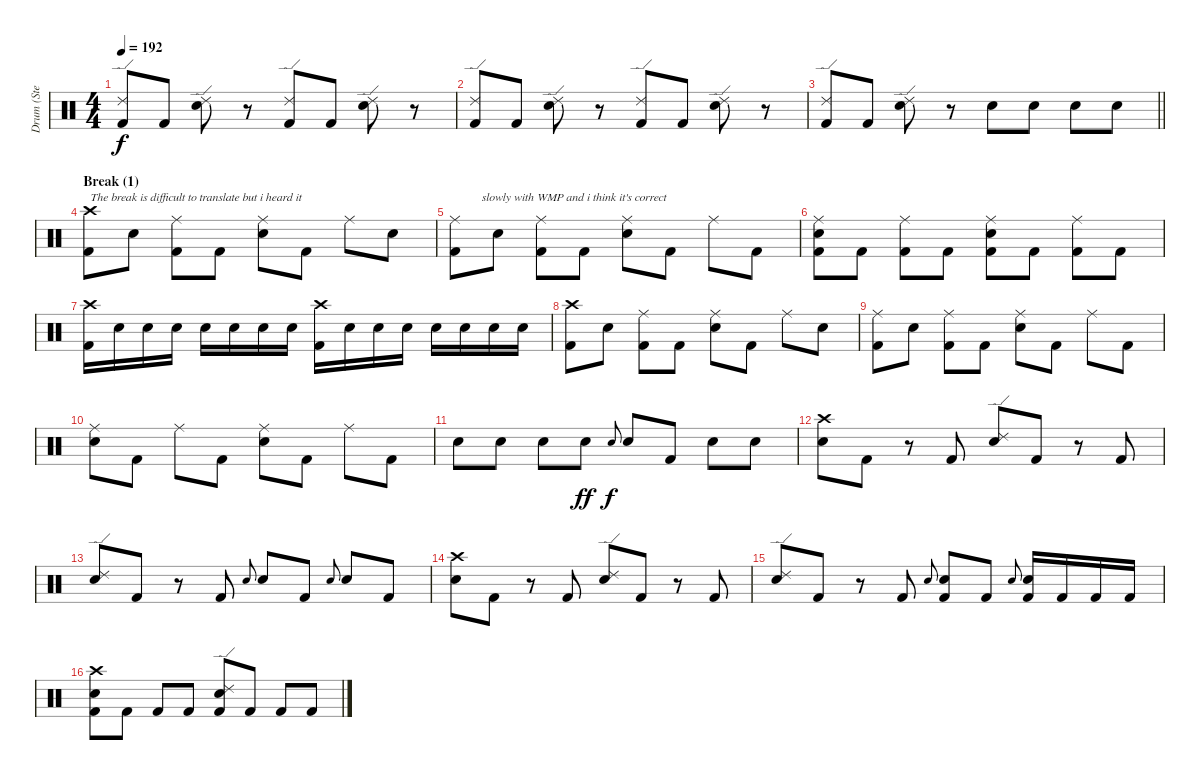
\track (" Drum (Steve O)" " Drum (Ste") {instrument percussion}
\staff {score}
\articulation defaults
\ts (4 4)
\tempo 192
\clef neutral
\ks c
("Ride (edge) 2" "Kick (hit) 2").8{dy f} "Kick (hit) 2".8 ("Ride (edge) 2" "Snare (hit) 2").8 r.8 ("Ride (edge) 2" "Kick (hit) 2").8 "Kick (hit) 2".8 ("Ride (edge) 2" "Snare (hit) 2").8 r.8 |
("Ride (edge) 2" "Kick (hit) 2").8 "Kick (hit) 2".8 ("Ride (edge) 2" "Snare (hit) 2").8 r.8 ("Ride (edge) 2" "Kick (hit) 2").8 "Kick (hit) 2".8 ("Ride (edge) 2" "Snare (hit) 2").8 r.8 |
\barLineRight lightlight
("Ride (edge) 2" "Kick (hit) 2").8 "Kick (hit) 2".8 ("Ride (edge) 2" "Snare (hit) 2").8 r.8 "Snare (hit) 2".8 "Snare (hit) 2".8 "Snare (hit) 2".8 "Snare (hit) 2".8 |
\section ("" "Break (1)")
("Crash high (hit)" "Kick (hit) 2").8{txt "The break is difficult to translate but i heard it"} "Snare (hit) 2".8 ("Ride (middle)" "Kick (hit) 2").8 "Kick (hit) 2".8 ("Ride (middle)" "Snare (hit) 2").8 "Kick (hit) 2".8 "Ride (middle)".8 "Snare (hit) 2".8 |
("Ride (middle)" "Kick (hit) 2").8{txt "         slowly with WMP and i think it's correct"} "Snare (hit) 2".8 ("Ride (middle)" "Kick (hit) 2").8 "Kick (hit) 2".8 ("Ride (middle)" "Snare (hit) 2").8 "Kick (hit) 2".8 "Ride (middle)".8 "Kick (hit) 2".8 |
("Ride (middle)" "Snare (hit) 2" "Kick (hit) 2").8 "Kick (hit) 2".8 ("Ride (middle)" "Kick (hit) 2").8 "Kick (hit) 2".8 ("Ride (middle)" "Snare (hit) 2" "Kick (hit) 2").8 "Kick (hit) 2".8 ("Ride (middle)" "Kick (hit) 2").8 "Kick (hit) 2".8 |
("Crash high (hit)" "Kick (hit) 2").16 "Snare (hit) 2".16 "Snare (hit) 2".16 "Snare (hit) 2".16 "Snare (hit) 2".16 "Snare (hit) 2".16 "Snare (hit) 2".16 "Snare (hit) 2".16 ("Crash high (hit)" "Kick (hit) 2").16 "Snare (hit) 2".16 "Snare (hit) 2".16 "Snare (hit) 2".16 "Snare (hit) 2".16 "Snare (hit) 2".16 "Snare (hit) 2".16 "Snare (hit) 2".16 |
("Crash high (hit)" "Kick (hit) 2").8 "Snare (hit) 2".8 ("Ride (middle)" "Kick (hit) 2").8 "Kick (hit) 2".8 ("Ride (middle)" "Snare (hit) 2").8 "Kick (hit) 2".8 "Ride (middle)".8 "Snare (hit) 2".8 |
("Ride (middle)" "Kick (hit) 2").8 "Snare (hit) 2".8 ("Ride (middle)" "Kick (hit) 2").8 "Kick (hit) 2".8 ("Ride (middle)" "Snare (hit) 2").8 "Kick (hit) 2".8 "Ride (middle)".8 "Kick (hit) 2".8 |
("Ride (middle)" "Snare (hit) 2").8 "Kick (hit) 2".8 "Ride (middle)".8 "Kick (hit) 2".8 ("Ride (middle)" "Snare (hit) 2").8 "Kick (hit) 2".8 "Ride (middle)".8 "Kick (hit) 2".8 |
"Snare (hit) 2".8 "Snare (hit) 2".8 "Snare (hit) 2".8 "Snare (hit) 2".8{dy ff} "Snare (hit) 2".8{gr onbeat dy f} "Snare (hit) 2".8 "Kick (hit) 2".8 "Snare (hit) 2".8 "Snare (hit) 2".8 |
("Crash high (hit)" "Snare (hit) 2").8 "Kick (hit) 2".8 r.8 "Kick (hit) 2".8 ("Ride (edge) 2" "Snare (hit) 2").8 "Kick (hit) 2".8 r.8 "Kick (hit) 2".8 |
("Ride (edge) 2" "Snare (hit) 2").8 "Kick (hit) 2".8 r.8 "Kick (hit) 2".8 "Snare (hit) 2".8{gr onbeat} "Snare (hit) 2".8 "Kick (hit) 2".8 "Snare (hit) 2".8{gr onbeat} "Snare (hit) 2".8 "Kick (hit) 2".8 |
("Crash high (hit)" "Snare (hit) 2").8 "Kick (hit) 2".8 r.8 "Kick (hit) 2".8 ("Ride (edge) 2" "Snare (hit) 2").8 "Kick (hit) 2".8 r.8 "Kick (hit) 2".8 |
("Ride (edge) 2" "Snare (hit) 2").8 "Kick (hit) 2".8 r.8 "Kick (hit) 2".8 "Snare (hit) 2".8{gr onbeat} ("Snare (hit) 2" "Kick (hit) 2").8 "Kick (hit) 2".8 "Snare (hit) 2".8{gr onbeat} ("Snare (hit) 2" "Kick (hit) 2").16 "Kick (hit) 2".16 "Kick (hit) 2".16 "Kick (hit) 2".16 |
("Crash high (hit)" "Kick (hit) 2" "Snare (hit) 2").8 "Kick (hit) 2".8 "Kick (hit) 2".8 "Kick (hit) 2".8 ("Ride (edge) 2" "Snare (hit) 2" "Kick (hit) 2").8 "Kick (hit) 2".8 "Kick (hit) 2".8 "Kick (hit) 2".8
